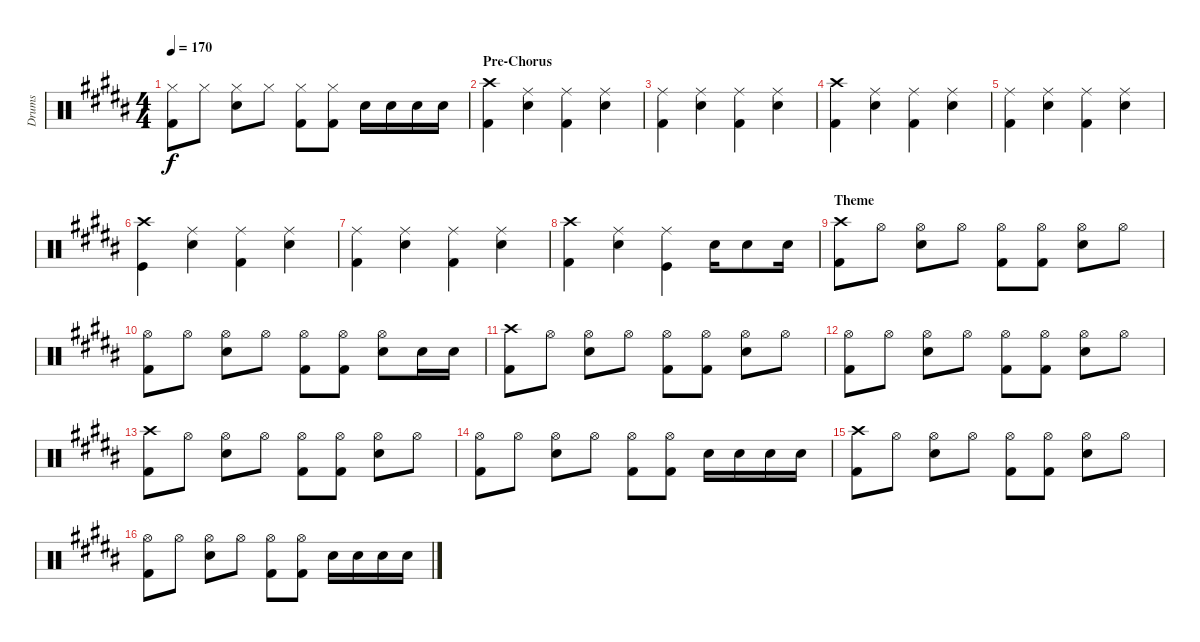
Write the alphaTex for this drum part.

\track ("Drums" "Drums") {instrument percussion}
\staff {score}
\articulation defaults
\ts (4 4)
\tempo 170
\clef neutral
\ks b
("Hi-Hat (closed)" "Kick (hit) 2").8{dy f} "Hi-Hat (closed)".8 ("Hi-Hat (closed)" "Electric Snare (hit)").8 "Hi-Hat (closed)".8 ("Hi-Hat (closed)" "Kick (hit) 2").8 ("Hi-Hat (closed)" "Kick (hit) 2").8 "Electric Snare (hit)".16 "Electric Snare (hit)".16 "Electric Snare (hit)".16 "Electric Snare (hit)".16 |
\section ("" "Pre-Chorus")
("Crash high (hit)" "Kick (hit) 2").4 ("Ride (middle)" "Electric Snare (hit)").4 ("Ride (middle)" "Kick (hit) 2").4 ("Ride (middle)" "Electric Snare (hit)").4 |
("Ride (middle)" "Kick (hit) 2").4 ("Ride (middle)" "Electric Snare (hit)").4 ("Ride (middle)" "Kick (hit) 2").4 ("Ride (middle)" "Electric Snare (hit)").4 |
("Crash high (hit)" "Kick (hit) 2").4 ("Ride (middle)" "Electric Snare (hit)").4 ("Ride (middle)" "Kick (hit) 2").4 ("Ride (middle)" "Electric Snare (hit)").4 |
("Ride (middle)" "Kick (hit) 2").4 ("Ride (middle)" "Electric Snare (hit)").4 ("Ride (middle)" "Kick (hit) 2").4 ("Ride (middle)" "Electric Snare (hit)").4 |
("Crash high (hit)" "Kick (hit)").4 ("Ride (middle)" "Electric Snare (hit)").4 ("Ride (middle)" "Kick (hit) 2").4 ("Ride (middle)" "Electric Snare (hit)").4 |
("Ride (middle)" "Kick (hit) 2").4 ("Ride (middle)" "Electric Snare (hit)").4 ("Ride (middle)" "Kick (hit) 2").4 ("Ride (middle)" "Electric Snare (hit)").4 |
("Crash high (hit)" "Kick (hit) 2").4 ("Ride (middle)" "Electric Snare (hit)").4 ("Ride (middle)" "Kick (hit)").4 "Electric Snare (hit)".16 "Electric Snare (hit)".8 "Electric Snare (hit)".16 |
\section ("" "Theme")
("Crash high (hit)" "Kick (hit) 2").8 "Hi-Hat (open)".8 ("Hi-Hat (open)" "Electric Snare (hit)").8 "Hi-Hat (open)".8 ("Hi-Hat (open)" "Kick (hit) 2").8 ("Hi-Hat (open)" "Kick (hit) 2").8 ("Hi-Hat (open)" "Electric Snare (hit)").8 "Hi-Hat (open)".8 |
("Hi-Hat (open)" "Kick (hit) 2").8 "Hi-Hat (open)".8 ("Hi-Hat (open)" "Electric Snare (hit)").8 "Hi-Hat (open)".8 ("Hi-Hat (open)" "Kick (hit) 2").8 ("Hi-Hat (open)" "Kick (hit) 2").8 ("Hi-Hat (open)" "Electric Snare (hit)").8 "Electric Snare (hit)".16 "Electric Snare (hit)".16 |
("Crash high (hit)" "Kick (hit) 2").8 "Hi-Hat (open)".8 ("Hi-Hat (open)" "Electric Snare (hit)").8 "Hi-Hat (open)".8 ("Hi-Hat (open)" "Kick (hit) 2").8 ("Hi-Hat (open)" "Kick (hit) 2").8 ("Hi-Hat (open)" "Electric Snare (hit)").8 "Hi-Hat (open)".8 |
("Hi-Hat (open)" "Kick (hit) 2").8 "Hi-Hat (open)".8 ("Hi-Hat (open)" "Electric Snare (hit)").8 "Hi-Hat (open)".8 ("Hi-Hat (open)" "Kick (hit) 2").8 ("Hi-Hat (open)" "Kick (hit) 2").8 ("Hi-Hat (open)" "Electric Snare (hit)").8 "Hi-Hat (open)".8 |
("Crash high (hit)" "Kick (hit) 2").8 "Hi-Hat (open)".8 ("Hi-Hat (open)" "Electric Snare (hit)").8 "Hi-Hat (open)".8 ("Hi-Hat (open)" "Kick (hit) 2").8 ("Hi-Hat (open)" "Kick (hit) 2").8 ("Hi-Hat (open)" "Electric Snare (hit)").8 "Hi-Hat (open)".8 |
("Hi-Hat (open)" "Kick (hit) 2").8 "Hi-Hat (open)".8 ("Hi-Hat (open)" "Electric Snare (hit)").8 "Hi-Hat (open)".8 ("Hi-Hat (open)" "Kick (hit) 2").8 ("Hi-Hat (open)" "Kick (hit) 2").8 "Electric Snare (hit)".16 "Electric Snare (hit)".16 "Electric Snare (hit)".16 "Electric Snare (hit)".16 |
("Crash high (hit)" "Kick (hit) 2").8 "Hi-Hat (open)".8 ("Hi-Hat (open)" "Electric Snare (hit)").8 "Hi-Hat (open)".8 ("Hi-Hat (open)" "Kick (hit) 2").8 ("Hi-Hat (open)" "Kick (hit) 2").8 ("Hi-Hat (open)" "Electric Snare (hit)").8 "Hi-Hat (open)".8 |
("Hi-Hat (open)" "Kick (hit) 2").8 "Hi-Hat (open)".8 ("Hi-Hat (open)" "Electric Snare (hit)").8 "Hi-Hat (open)".8 ("Hi-Hat (open)" "Kick (hit) 2").8 ("Hi-Hat (open)" "Kick (hit) 2").8 "Electric Snare (hit)".16 "Electric Snare (hit)".16 "Electric Snare (hit)".16 "Electric Snare (hit)".16
